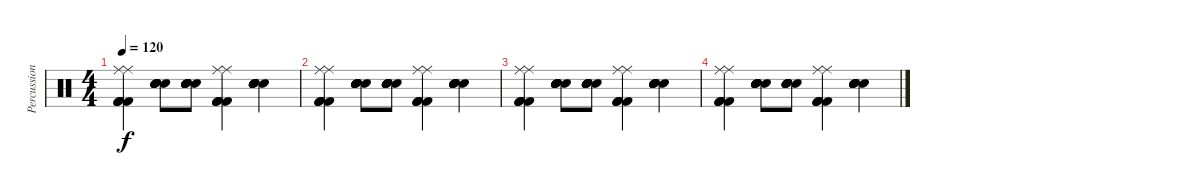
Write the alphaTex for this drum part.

\track ("Percussion" "Percussion") {instrument percussion}
\staff {score}
\articulation defaults
\ts (4 4)
\tempo 120
\clef neutral
\ks c
("Ride (middle)" "Kick (hit) 2" "Kick (hit) 2" "Kick (hit) 2" "Kick (hit) 2" "Ride (middle)").4{dy f} ("Electric Snare (hit)" "Electric Snare (hit)" "Electric Snare (hit)" "Electric Snare (hit)" "Electric Snare (hit)" "Electric Snare (hit)").8 ("Electric Snare (hit)" "Electric Snare (hit)" "Electric Snare (hit)" "Electric Snare (hit)" "Electric Snare (hit)" "Electric Snare (hit)").8 ("Ride (middle)" "Kick (hit) 2" "Kick (hit) 2" "Kick (hit) 2" "Kick (hit) 2" "Ride (middle)").4 ("Electric Snare (hit)" "Electric Snare (hit)" "Electric Snare (hit)" "Electric Snare (hit)" "Electric Snare (hit)" "Electric Snare (hit)").4 |
("Ride (middle)" "Kick (hit) 2" "Kick (hit) 2" "Kick (hit) 2" "Kick (hit) 2" "Ride (middle)").4 ("Electric Snare (hit)" "Electric Snare (hit)" "Electric Snare (hit)" "Electric Snare (hit)" "Electric Snare (hit)" "Electric Snare (hit)").8 ("Electric Snare (hit)" "Electric Snare (hit)" "Electric Snare (hit)" "Electric Snare (hit)" "Electric Snare (hit)" "Electric Snare (hit)").8 ("Ride (middle)" "Kick (hit) 2" "Kick (hit) 2" "Kick (hit) 2" "Kick (hit) 2" "Ride (middle)").4 ("Electric Snare (hit)" "Electric Snare (hit)" "Electric Snare (hit)" "Electric Snare (hit)" "Electric Snare (hit)" "Electric Snare (hit)").4 |
("Ride (middle)" "Kick (hit) 2" "Kick (hit) 2" "Kick (hit) 2" "Kick (hit) 2" "Ride (middle)").4 ("Electric Snare (hit)" "Electric Snare (hit)" "Electric Snare (hit)" "Electric Snare (hit)" "Electric Snare (hit)" "Electric Snare (hit)").8 ("Electric Snare (hit)" "Electric Snare (hit)" "Electric Snare (hit)" "Electric Snare (hit)" "Electric Snare (hit)" "Electric Snare (hit)").8 ("Ride (middle)" "Kick (hit) 2" "Kick (hit) 2" "Kick (hit) 2" "Kick (hit) 2" "Ride (middle)").4 ("Electric Snare (hit)" "Electric Snare (hit)" "Electric Snare (hit)" "Electric Snare (hit)" "Electric Snare (hit)" "Electric Snare (hit)").4 |
("Ride (middle)" "Kick (hit) 2" "Kick (hit) 2" "Kick (hit) 2" "Kick (hit) 2" "Ride (middle)").4 ("Electric Snare (hit)" "Electric Snare (hit)" "Electric Snare (hit)" "Electric Snare (hit)" "Electric Snare (hit)" "Electric Snare (hit)").8 ("Electric Snare (hit)" "Electric Snare (hit)" "Electric Snare (hit)" "Electric Snare (hit)" "Electric Snare (hit)" "Electric Snare (hit)").8 ("Ride (middle)" "Kick (hit) 2" "Kick (hit) 2" "Kick (hit) 2" "Kick (hit) 2" "Ride (middle)").4 ("Electric Snare (hit)" "Electric Snare (hit)" "Electric Snare (hit)" "Electric Snare (hit)" "Electric Snare (hit)" "Electric Snare (hit)").4
